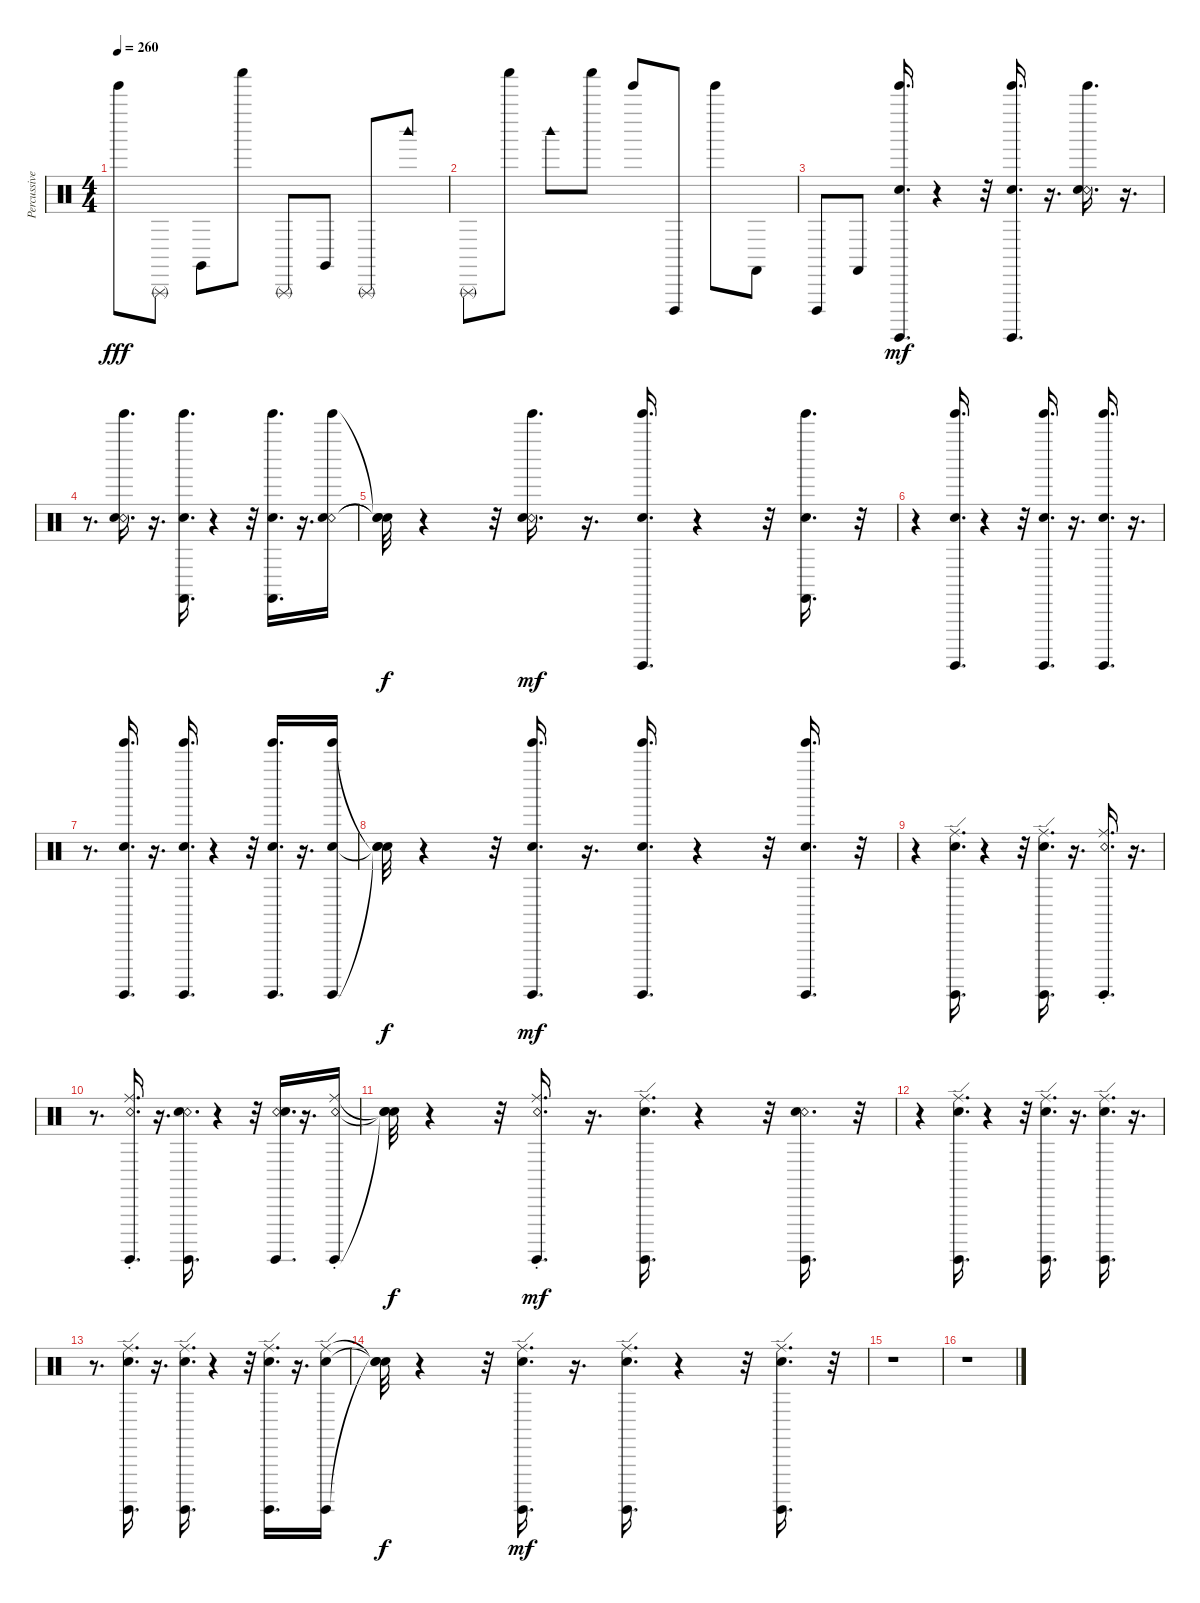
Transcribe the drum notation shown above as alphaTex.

\track ("Percussive Organ" "Percussive") {instrument percussion}
\staff {score}
\articulation defaults
\ts (4 4)
\tempo 260
\clef neutral
\ks c "Tinkle Bell (hit)".8{dy fff} "Triangle (rnute)".8 "Claves (hit)".8 "Shaker (hit)".8 "Triangle (rnute)".8 "Claves (hit)".8 "Triangle (rnute)".8 "Woodblock high (hit)".8
|
"Triangle (rnute)".8 "Shaker (hit)".8 "Woodblock high (hit)".8 "Shaker (hit)".8 "Tinkle Bell (hit)".8 "Cuica (open)".8 "Tinkle Bell (hit)".8 "Castanets (hit)".8 |
"Cuica (open)".8 "Castanets (hit)".8 ("Tinkle Bell (hit)" "Snare (hit)" "Surdo (hit)").16{d dy mf} r.4 r.32 ("Tinkle Bell (hit)" "Snare (hit)" "Surdo (hit)").16{d} r.16{d} ("Tinkle Bell (hit)" "Snare (rim shot)" "Snare (hit)").16{d} r.16{d} |
r.8{d} ("Tinkle Bell (hit)" "Snare (rim shot)" "Snare (hit)").16{d} r.16{d} ("Tinkle Bell (hit)" "Snare (hit)" "Castanets (hit)").16{d} r.4 r.32 ("Tinkle Bell (hit)" "Snare (hit)" "Castanets (hit)").16{d} r.16{d} ("Tinkle Bell (hit)" "Snare (rim shot)" "Snare (hit)").16 |
("Snare (hit)"{t} "Snare (hit)"{t} "Snare (hit)"{t}).32{dy f} r.4 r.32 ("Tinkle Bell (hit)" "Snare (rim shot)" "Snare (hit)").16{d dy mf} r.16{d} ("Tinkle Bell (hit)" "Snare (hit)" "Surdo (hit)").16{d} r.4 r.32 ("Tinkle Bell (hit)" "Snare (hit)" "Castanets (hit)").16{d} r.32 |
r.4 ("Tinkle Bell (hit)" "Snare (hit)" "Surdo (hit)").16{d} r.4 r.32 ("Tinkle Bell (hit)" "Snare (hit)" "Surdo (hit)").16{d} r.16{d} ("Tinkle Bell (hit)" "Snare (hit)" "Surdo (hit)").16{d} r.16{d} |
r.8{d} ("Tinkle Bell (hit)" "Snare (hit)" "Surdo (hit)").16{d} r.16{d} ("Tinkle Bell (hit)" "Snare (hit)" "Surdo (hit)").16{d} r.4 r.32 ("Tinkle Bell (hit)" "Snare (hit)" "Surdo (hit)").16{d} r.16{d} ("Tinkle Bell (hit)" "Snare (hit)" "Surdo (hit)").16 |
("Snare (hit)"{t} "Snare (hit)"{t} "Snare (hit)"{t}).32{dy f} r.4 r.32 ("Tinkle Bell (hit)" "Snare (hit)" "Surdo (hit)").16{d dy mf} r.16{d} ("Tinkle Bell (hit)" "Snare (hit)" "Surdo (hit)").16{d} r.4 r.32 ("Tinkle Bell (hit)" "Snare (hit)" "Surdo (hit)").16{d} r.32 |
r.4 ("Surdo (hit)" "Ride (edge)" "Snare (hit)").16{d} r.4 r.32 ("Surdo (hit)" "Ride (edge)" "Snare (hit)").16{d} r.16{d} ("Surdo (hit)" "Ride (choke)" "Snare (rim shot)").16{d} r.16{d} |
r.8{d} ("Surdo (hit)" "Ride (choke)" "Snare (rim shot)").16{d} r.16{d} ("Surdo (hit)" "Snare (rim shot)" "Snare (hit)").16{d} r.4 r.32 ("Surdo (hit)" "Snare (rim shot)" "Snare (hit)").16{d} r.16{d} ("Surdo (hit)" "Ride (choke)" "Snare (rim shot)").16 |
("Snare (hit)"{t} "Snare (hit)"{t} "Snare (hit)"{t}).32{dy f} r.4 r.32 ("Surdo (hit)" "Ride (choke)" "Snare (rim shot)").16{d dy mf} r.16{d} ("Surdo (hit)" "Ride (edge)" "Snare (hit)").16{d} r.4 r.32 ("Surdo (hit)" "Snare (rim shot)" "Snare (hit)").16{d} r.32 |
r.4 ("Surdo (hit)" "Ride (edge)" "Snare (hit)").16{d} r.4 r.32 ("Surdo (hit)" "Ride (edge)" "Snare (hit)").16{d} r.16{d} ("Surdo (hit)" "Ride (edge)" "Snare (hit)").16{d} r.16{d} |
r.8{d} ("Surdo (hit)" "Ride (edge)" "Snare (hit)").16{d} r.16{d} ("Surdo (hit)" "Ride (edge)" "Snare (hit)").16{d} r.4 r.32 ("Surdo (hit)" "Ride (edge)" "Snare (hit)").16{d} r.16{d} ("Surdo (hit)" "Ride (edge)" "Snare (hit)").16 |
("Snare (hit)"{t} "Snare (hit)"{t} "Snare (hit)"{t}).32{dy f} r.4 r.32 ("Surdo (hit)" "Ride (edge)" "Snare (hit)").16{d dy mf} r.16{d} ("Surdo (hit)" "Ride (edge)" "Snare (hit)").16{d} r.4 r.32 ("Surdo (hit)" "Ride (edge)" "Snare (hit)").16{d} r.32 |
r.1 |
r.1
